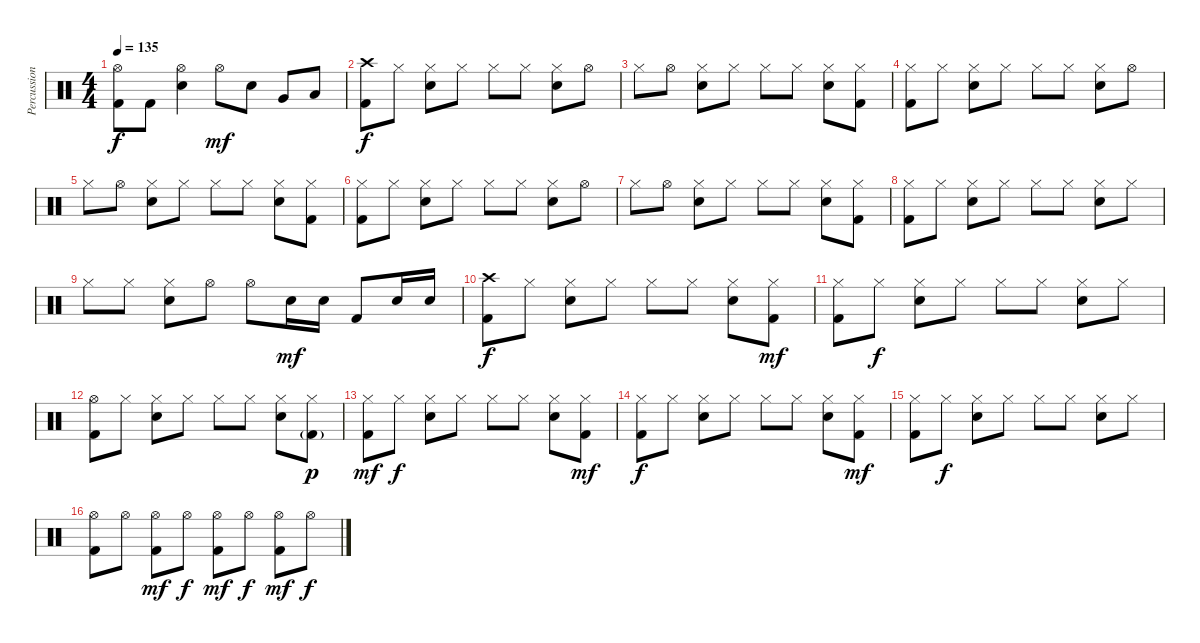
\track ("Percussions" "Percussion") {instrument percussion}
\staff {score}
\articulation defaults
\ts (4 4)
\tempo 135
\clef neutral
\ks c
("Hi-Hat (open)" "Kick (hit) 2").8{dy f} "Kick (hit) 2".8 ("Hi-Hat (open)" "Snare (hit) 2").4 "Hi-Hat (open)".8{dy mf} "Snare (hit) 2".8 "Very Low Tom (hit)".8 "Low Tom (hit)".8 |
("Crash high (hit)" "Kick (hit) 2").8{dy f} "Hi-Hat (closed)".8 ("Hi-Hat (closed)" "Snare (hit) 2").8 "Hi-Hat (closed)".8 "Hi-Hat (closed)".8 "Hi-Hat (closed)".8 ("Hi-Hat (closed)" "Snare (hit) 2").8 "Hi-Hat (open)".8 |
"Hi-Hat (closed)".8 "Hi-Hat (open)".8 ("Hi-Hat (closed)" "Snare (hit) 2").8 "Hi-Hat (closed)".8 "Hi-Hat (closed)".8 "Hi-Hat (closed)".8 ("Hi-Hat (closed)" "Snare (hit) 2").8 ("Hi-Hat (closed)" "Kick (hit) 2").8 |
("Hi-Hat (closed)" "Kick (hit) 2").8 "Hi-Hat (closed)".8 ("Hi-Hat (closed)" "Snare (hit) 2").8 "Hi-Hat (closed)".8 "Hi-Hat (closed)".8 "Hi-Hat (closed)".8 ("Hi-Hat (closed)" "Snare (hit) 2").8 "Hi-Hat (open)".8 |
"Hi-Hat (closed)".8 "Hi-Hat (open)".8 ("Hi-Hat (closed)" "Snare (hit) 2").8 "Hi-Hat (closed)".8 "Hi-Hat (closed)".8 "Hi-Hat (closed)".8 ("Hi-Hat (closed)" "Snare (hit) 2").8 ("Hi-Hat (closed)" "Kick (hit) 2").8 |
("Hi-Hat (closed)" "Kick (hit) 2").8 "Hi-Hat (closed)".8 ("Hi-Hat (closed)" "Snare (hit) 2").8 "Hi-Hat (closed)".8 "Hi-Hat (closed)".8 "Hi-Hat (closed)".8 ("Hi-Hat (closed)" "Snare (hit) 2").8 "Hi-Hat (open)".8 |
"Hi-Hat (closed)".8 "Hi-Hat (open)".8 ("Hi-Hat (closed)" "Snare (hit) 2").8 "Hi-Hat (closed)".8 "Hi-Hat (closed)".8 "Hi-Hat (closed)".8 ("Hi-Hat (closed)" "Snare (hit) 2").8 ("Hi-Hat (closed)" "Kick (hit) 2").8 |
("Hi-Hat (closed)" "Kick (hit) 2").8 "Hi-Hat (closed)".8 ("Hi-Hat (closed)" "Snare (hit) 2").8 "Hi-Hat (closed)".8 "Hi-Hat (closed)".8 "Hi-Hat (closed)".8 ("Hi-Hat (closed)" "Snare (hit) 2").8 "Hi-Hat (closed)".8 |
"Hi-Hat (closed)".8 "Hi-Hat (closed)".8 ("Hi-Hat (closed)" "Snare (hit) 2").8 "Hi-Hat (open)".8 "Hi-Hat (open)".8 "Snare (hit) 2".16{dy mf} "Snare (hit) 2".16 "Kick (hit) 2".8 "Snare (hit) 2".16 "Snare (hit) 2".16 |
("Crash high (hit)" "Kick (hit) 2").8{dy f} "Hi-Hat (closed)".8 ("Hi-Hat (closed)" "Snare (hit) 2").8 "Hi-Hat (closed)".8 "Hi-Hat (closed)".8 "Hi-Hat (closed)".8 ("Hi-Hat (closed)" "Snare (hit) 2").8 ("Hi-Hat (closed)" "Kick (hit) 2").8{dy mf} |
("Hi-Hat (closed)" "Kick (hit) 2").8 "Hi-Hat (closed)".8{dy f} ("Hi-Hat (closed)" "Snare (hit) 2").8 "Hi-Hat (closed)".8 "Hi-Hat (closed)".8 "Hi-Hat (closed)".8 ("Hi-Hat (closed)" "Snare (hit) 2").8 "Hi-Hat (closed)".8 |
("Hi-Hat (open)" "Kick (hit) 2").8 "Hi-Hat (closed)".8 ("Hi-Hat (closed)" "Snare (hit) 2").8 "Hi-Hat (closed)".8 "Hi-Hat (closed)".8 "Hi-Hat (closed)".8 ("Hi-Hat (closed)" "Snare (hit) 2").8 ("Hi-Hat (closed)" "Kick (hit) 2"{g}).8{dy p} |
("Hi-Hat (closed)" "Kick (hit) 2").8{dy mf} "Hi-Hat (closed)".8{dy f} ("Hi-Hat (closed)" "Snare (hit) 2").8 "Hi-Hat (closed)".8 "Hi-Hat (closed)".8 "Hi-Hat (closed)".8 ("Hi-Hat (closed)" "Snare (hit) 2").8 ("Hi-Hat (closed)" "Kick (hit) 2").8{dy mf} |
("Hi-Hat (closed)" "Kick (hit) 2").8{dy f} "Hi-Hat (closed)".8 ("Hi-Hat (closed)" "Snare (hit) 2").8 "Hi-Hat (closed)".8 "Hi-Hat (closed)".8 "Hi-Hat (closed)".8 ("Hi-Hat (closed)" "Snare (hit) 2").8 ("Hi-Hat (closed)" "Kick (hit) 2").8{dy mf} |
("Hi-Hat (closed)" "Kick (hit) 2").8 "Hi-Hat (closed)".8{dy f} ("Hi-Hat (closed)" "Snare (hit) 2").8 "Hi-Hat (closed)".8 "Hi-Hat (closed)".8 "Hi-Hat (closed)".8 ("Hi-Hat (closed)" "Snare (hit) 2").8 "Hi-Hat (closed)".8 |
("Hi-Hat (open)" "Kick (hit) 2").8 "Hi-Hat (open)".8 ("Hi-Hat (open)" "Kick (hit) 2").8{dy mf} "Hi-Hat (open)".8{dy f} ("Hi-Hat (open)" "Kick (hit) 2").8{dy mf} "Hi-Hat (open)".8{dy f} ("Hi-Hat (open)" "Kick (hit) 2").8{dy mf} "Hi-Hat (open)".8{dy f}
